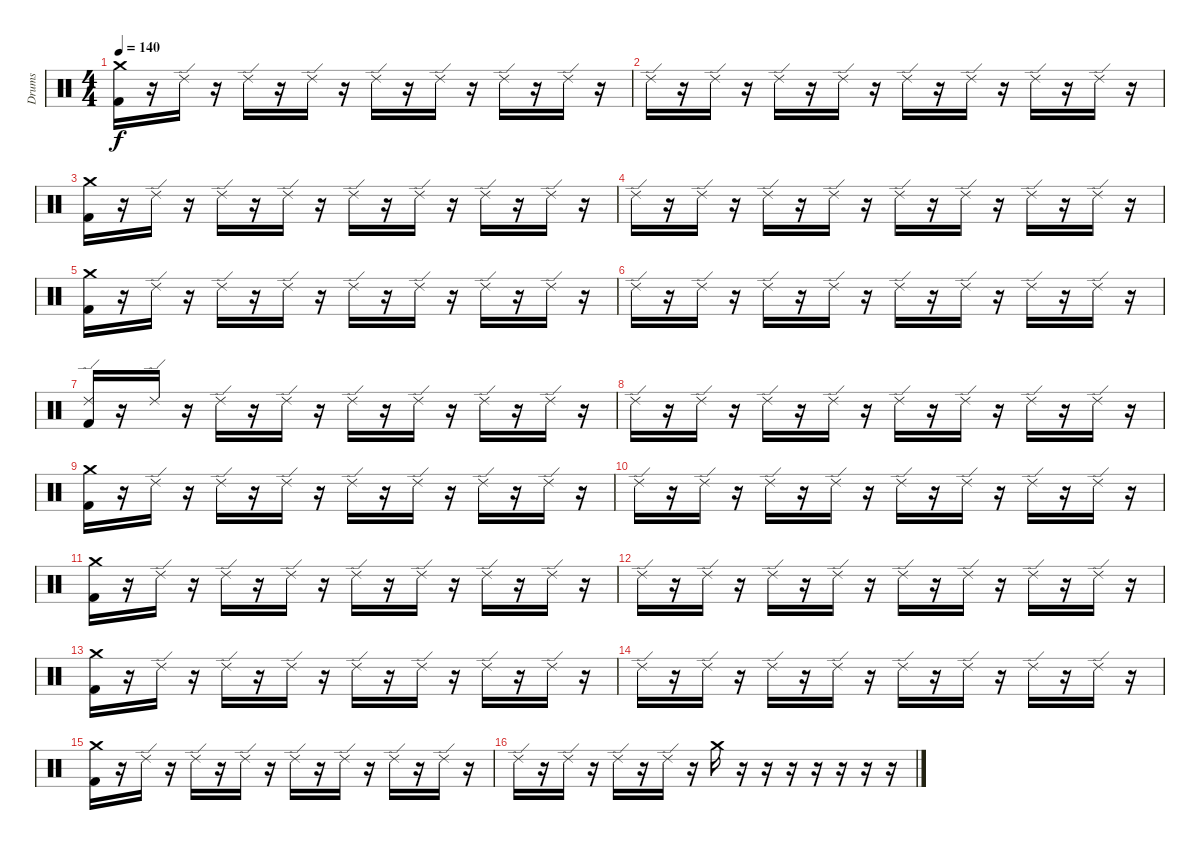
\track ("Drums" "Drums") {instrument percussion}
\staff {score}
\articulation defaults
\ts (4 4)
\tempo 140
\clef neutral
\ks c
("Crash medium (hit)" "Kick (hit) 2").16{dy f} r.16 "Ride (edge) 2".16 r.16 "Ride (edge) 2".16 r.16 "Ride (edge) 2".16 r.16 "Ride (edge) 2".16 r.16 "Ride (edge) 2".16 r.16 "Ride (edge) 2".16 r.16 "Ride (edge) 2".16 r.16 |
"Ride (edge) 2".16 r.16 "Ride (edge) 2".16 r.16 "Ride (edge) 2".16 r.16 "Ride (edge) 2".16 r.16 "Ride (edge) 2".16 r.16 "Ride (edge) 2".16 r.16 "Ride (edge) 2".16 r.16 "Ride (edge) 2".16 r.16 |
("Crash medium (hit)" "Kick (hit) 2").16 r.16 "Ride (edge) 2".16 r.16 "Ride (edge) 2".16 r.16 "Ride (edge) 2".16 r.16 "Ride (edge) 2".16 r.16 "Ride (edge) 2".16 r.16 "Ride (edge) 2".16 r.16 "Ride (edge) 2".16 r.16 |
"Ride (edge) 2".16 r.16 "Ride (edge) 2".16 r.16 "Ride (edge) 2".16 r.16 "Ride (edge) 2".16 r.16 "Ride (edge) 2".16 r.16 "Ride (edge) 2".16 r.16 "Ride (edge) 2".16 r.16 "Ride (edge) 2".16 r.16 |
("Crash medium (hit)" "Kick (hit) 2").16 r.16 "Ride (edge) 2".16 r.16 "Ride (edge) 2".16 r.16 "Ride (edge) 2".16 r.16 "Ride (edge) 2".16 r.16 "Ride (edge) 2".16 r.16 "Ride (edge) 2".16 r.16 "Ride (edge) 2".16 r.16 |
"Ride (edge) 2".16 r.16 "Ride (edge) 2".16 r.16 "Ride (edge) 2".16 r.16 "Ride (edge) 2".16 r.16 "Ride (edge) 2".16 r.16 "Ride (edge) 2".16 r.16 "Ride (edge) 2".16 r.16 "Ride (edge) 2".16 r.16 |
("Ride (edge) 2" "Kick (hit) 2").16 r.16 "Ride (edge) 2".16 r.16 "Ride (edge) 2".16 r.16 "Ride (edge) 2".16 r.16 "Ride (edge) 2".16 r.16 "Ride (edge) 2".16 r.16 "Ride (edge) 2".16 r.16 "Ride (edge) 2".16 r.16 |
"Ride (edge) 2".16 r.16 "Ride (edge) 2".16 r.16 "Ride (edge) 2".16 r.16 "Ride (edge) 2".16 r.16 "Ride (edge) 2".16 r.16 "Ride (edge) 2".16 r.16 "Ride (edge) 2".16 r.16 "Ride (edge) 2".16 r.16 |
("Crash medium (hit)" "Kick (hit) 2").16 r.16 "Ride (edge) 2".16 r.16 "Ride (edge) 2".16 r.16 "Ride (edge) 2".16 r.16 "Ride (edge) 2".16 r.16 "Ride (edge) 2".16 r.16 "Ride (edge) 2".16 r.16 "Ride (edge) 2".16 r.16 |
"Ride (edge) 2".16 r.16 "Ride (edge) 2".16 r.16 "Ride (edge) 2".16 r.16 "Ride (edge) 2".16 r.16 "Ride (edge) 2".16 r.16 "Ride (edge) 2".16 r.16 "Ride (edge) 2".16 r.16 "Ride (edge) 2".16 r.16 |
("Crash medium (hit)" "Kick (hit) 2").16 r.16 "Ride (edge) 2".16 r.16 "Ride (edge) 2".16 r.16 "Ride (edge) 2".16 r.16 "Ride (edge) 2".16 r.16 "Ride (edge) 2".16 r.16 "Ride (edge) 2".16 r.16 "Ride (edge) 2".16 r.16 |
"Ride (edge) 2".16 r.16 "Ride (edge) 2".16 r.16 "Ride (edge) 2".16 r.16 "Ride (edge) 2".16 r.16 "Ride (edge) 2".16 r.16 "Ride (edge) 2".16 r.16 "Ride (edge) 2".16 r.16 "Ride (edge) 2".16 r.16 |
("Crash medium (hit)" "Kick (hit) 2").16 r.16 "Ride (edge) 2".16 r.16 "Ride (edge) 2".16 r.16 "Ride (edge) 2".16 r.16 "Ride (edge) 2".16 r.16 "Ride (edge) 2".16 r.16 "Ride (edge) 2".16 r.16 "Ride (edge) 2".16 r.16 |
"Ride (edge) 2".16 r.16 "Ride (edge) 2".16 r.16 "Ride (edge) 2".16 r.16 "Ride (edge) 2".16 r.16 "Ride (edge) 2".16 r.16 "Ride (edge) 2".16 r.16 "Ride (edge) 2".16 r.16 "Ride (edge) 2".16 r.16 |
("Crash medium (hit)" "Kick (hit) 2").16 r.16 "Ride (edge) 2".16 r.16 "Ride (edge) 2".16 r.16 "Ride (edge) 2".16 r.16 "Ride (edge) 2".16 r.16 "Ride (edge) 2".16 r.16 "Ride (edge) 2".16 r.16 "Ride (edge) 2".16 r.16 |
"Ride (edge) 2".16 r.16 "Ride (edge) 2".16 r.16 "Ride (edge) 2".16 r.16 "Ride (edge) 2".16 r.16 "Crash medium (hit)".16 r.16 r.16 r.16 r.16 r.16 r.16 r.16
